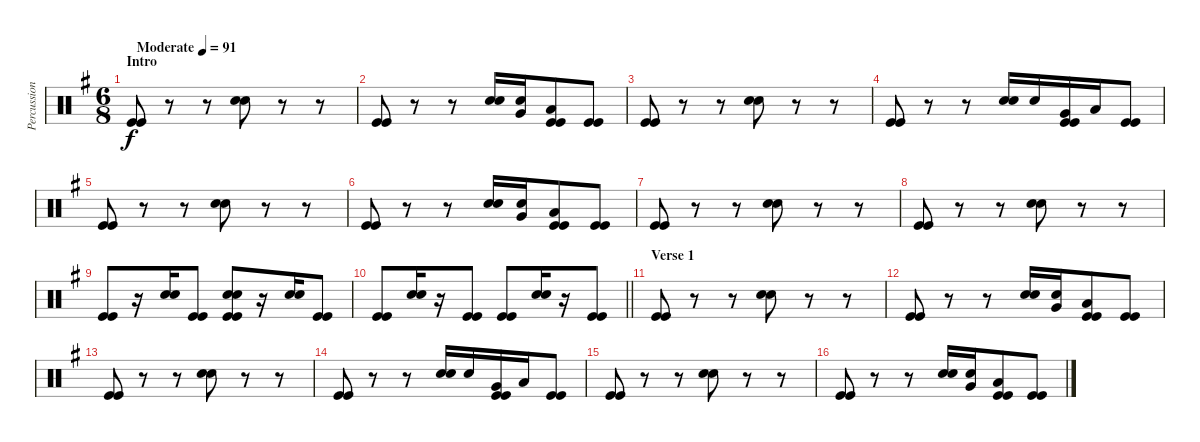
\track ("Percussion (For Volume)" "Percussion") {instrument percussion}
\staff {score}
\articulation defaults
\ts (6 8)
\section ("" "Intro")
\tempo (91 "Moderate")
\clef neutral
\ks eminor
("Kick (hit)" "Kick (hit)").8{dy f} r.8 r.8 ("Electric Snare (hit)" "Electric Snare (hit)").8 r.8 r.8 |
("Kick (hit)" "Kick (hit)").8 r.8 r.8 ("Electric Snare (hit)" "Electric Snare (hit)").16 ("Electric Snare (hit)" "Very Low Tom (hit)").16 ("Low Floor Tom (hit)" "Kick (hit)" "Kick (hit)").8 ("Kick (hit)" "Kick (hit)").8 |
("Kick (hit)" "Kick (hit)").8 r.8 r.8 ("Electric Snare (hit)" "Electric Snare (hit)").8 r.8 r.8 |
("Kick (hit)" "Kick (hit)").8 r.8 r.8 ("Electric Snare (hit)" "Electric Snare (hit)").16 "Electric Snare (hit)".16 ("Very Low Tom (hit)" "Kick (hit)" "Kick (hit)").16 "Low Floor Tom (hit)".16 ("Kick (hit)" "Kick (hit)").8 |
("Kick (hit)" "Kick (hit)").8 r.8 r.8 ("Electric Snare (hit)" "Electric Snare (hit)").8 r.8 r.8 |
("Kick (hit)" "Kick (hit)").8 r.8 r.8 ("Electric Snare (hit)" "Electric Snare (hit)").16 ("Electric Snare (hit)" "Very Low Tom (hit)").16 ("Low Floor Tom (hit)" "Kick (hit)" "Kick (hit)").8 ("Kick (hit)" "Kick (hit)").8 |
("Kick (hit)" "Kick (hit)").8 r.8 r.8 ("Electric Snare (hit)" "Electric Snare (hit)").8 r.8 r.8 |
("Kick (hit)" "Kick (hit)").8 r.8 r.8 ("Electric Snare (hit)" "Electric Snare (hit)").8 r.8 r.8 |
("Kick (hit)" "Kick (hit)").8 r.16 ("Electric Snare (hit)" "Electric Snare (hit)").16 ("Kick (hit)" "Kick (hit)").8 ("Electric Snare (hit)" "Electric Snare (hit)" "Kick (hit)" "Kick (hit)").8 r.16 ("Electric Snare (hit)" "Electric Snare (hit)").16 ("Kick (hit)" "Kick (hit)").8 |
\barLineRight lightlight
("Kick (hit)" "Kick (hit)").8 ("Electric Snare (hit)" "Electric Snare (hit)").16 r.16 ("Kick (hit)" "Kick (hit)").8 ("Kick (hit)" "Kick (hit)").8 ("Electric Snare (hit)" "Electric Snare (hit)").16 r.16 ("Kick (hit)" "Kick (hit)").8 |
\section ("" "Verse 1")
("Kick (hit)" "Kick (hit)").8 r.8 r.8 ("Electric Snare (hit)" "Electric Snare (hit)").8 r.8 r.8 |
("Kick (hit)" "Kick (hit)").8 r.8 r.8 ("Electric Snare (hit)" "Electric Snare (hit)").16 ("Electric Snare (hit)" "Very Low Tom (hit)").16 ("Low Floor Tom (hit)" "Kick (hit)" "Kick (hit)").8 ("Kick (hit)" "Kick (hit)").8 |
("Kick (hit)" "Kick (hit)").8 r.8 r.8 ("Electric Snare (hit)" "Electric Snare (hit)").8 r.8 r.8 |
("Kick (hit)" "Kick (hit)").8 r.8 r.8 ("Electric Snare (hit)" "Electric Snare (hit)").16 "Electric Snare (hit)".16 ("Very Low Tom (hit)" "Kick (hit)" "Kick (hit)").16 "Low Floor Tom (hit)".16 ("Kick (hit)" "Kick (hit)").8 |
("Kick (hit)" "Kick (hit)").8 r.8 r.8 ("Electric Snare (hit)" "Electric Snare (hit)").8 r.8 r.8 |
("Kick (hit)" "Kick (hit)").8 r.8 r.8 ("Electric Snare (hit)" "Electric Snare (hit)").16 ("Electric Snare (hit)" "Very Low Tom (hit)").16 ("Low Floor Tom (hit)" "Kick (hit)" "Kick (hit)").8 ("Kick (hit)" "Kick (hit)").8
